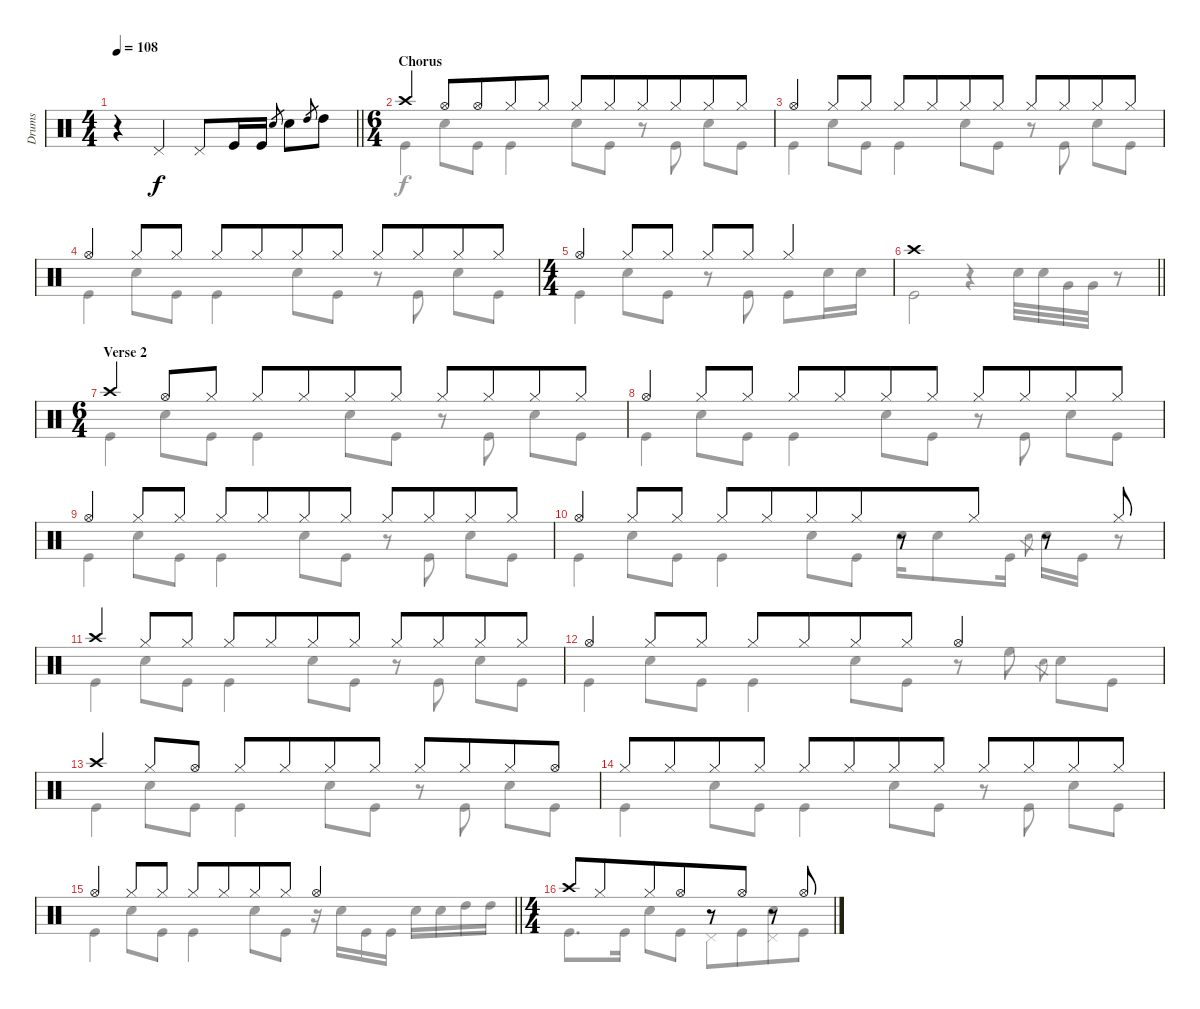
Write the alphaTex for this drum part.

\track ("Drums" "Drums") {instrument percussion}
\staff {score}
\articulation defaults
\voice
\ts (4 4)
\tempo 108
\clef neutral
\barLineRight lightlight
\ks c
r.4{dy f} "Pedal Hi-Hat (hit)".4 "Pedal Hi-Hat (hit)".8 "Kick (hit)".16 "Kick (hit)".16 "Snare (hit) 2".8{gr} "Snare (hit) 2".8 "High Tom (hit)".8{gr} "High Tom (hit)".8 |
\ts (6 4)
\section ("" "Chorus")
"Crash high (hit)".4{beam Up beam split} "Hi-Hat (open)".8{beam Up beam merge} "Hi-Hat (open)".8{beam Up beam merge} "Hi-Hat (closed)".8{beam Up beam merge} "Hi-Hat (closed)".8{beam Up beam split} "Hi-Hat (closed)".8{beam Up beam merge} "Hi-Hat (closed)".8{beam Up beam merge} "Hi-Hat (closed)".8{beam Up beam merge} "Hi-Hat (closed)".8{beam Up beam merge} "Hi-Hat (closed)".8{beam Up beam merge} "Hi-Hat (closed)".8{beam Up} |
"Hi-Hat (open)".4{beam Up beam split} "Hi-Hat (closed)".8{beam Up beam merge} "Hi-Hat (closed)".8{beam Up beam split} "Hi-Hat (closed)".8{beam Up beam merge} "Hi-Hat (closed)".8{beam Up beam merge} "Hi-Hat (closed)".8{beam Up beam merge} "Hi-Hat (closed)".8{beam Up beam split} "Hi-Hat (closed)".8{beam Up beam merge} "Hi-Hat (closed)".8{beam Up beam merge} "Hi-Hat (closed)".8{beam Up beam merge} "Hi-Hat (closed)".8{beam Up} |
"Hi-Hat (open)".4{beam Up beam split} "Hi-Hat (closed)".8{beam Up beam merge} "Hi-Hat (closed)".8{beam Up beam split} "Hi-Hat (closed)".8{beam Up beam merge} "Hi-Hat (closed)".8{beam Up beam merge} "Hi-Hat (closed)".8{beam Up beam merge} "Hi-Hat (closed)".8{beam Up beam split} "Hi-Hat (closed)".8{beam Up beam merge} "Hi-Hat (closed)".8{beam Up beam merge} "Hi-Hat (closed)".8{beam Up beam merge} "Hi-Hat (closed)".8{beam Up} |
\ts (4 4)
"Hi-Hat (open)".4{beam Up beam split} "Hi-Hat (closed)".8{beam Up beam merge} "Hi-Hat (closed)".8{beam Up beam split} "Hi-Hat (closed)".8{beam Up beam merge} "Hi-Hat (closed)".8{beam Up beam merge} "Hi-Hat (closed)".4{beam Up} |
\barLineRight lightlight "Crash high (hit)".1
|
\ts (6 4)
\section ("" "Verse 2")
"Crash high (hit)".4{beam Up} "Hi-Hat (open)".8{beam Up} "Hi-Hat (closed)".8{beam Up beam split} "Hi-Hat (closed)".8{beam Up beam merge} "Hi-Hat (closed)".8{beam Up beam merge} "Hi-Hat (closed)".8{beam Up beam merge} "Hi-Hat (closed)".8{beam Up beam split} "Hi-Hat (closed)".8{beam Up beam merge} "Hi-Hat (closed)".8{beam Up beam merge} "Hi-Hat (closed)".8{beam Up beam merge} "Hi-Hat (closed)".8{beam Up} |
"Hi-Hat (open)".4{beam Up} "Hi-Hat (closed)".8{beam Up beam merge} "Hi-Hat (closed)".8{beam Up beam split} "Hi-Hat (closed)".8{beam Up beam merge} "Hi-Hat (closed)".8{beam Up beam merge} "Hi-Hat (closed)".8{beam Up beam merge} "Hi-Hat (closed)".8{beam Up beam split} "Hi-Hat (closed)".8{beam Up beam merge} "Hi-Hat (closed)".8{beam Up beam merge} "Hi-Hat (closed)".8{beam Up beam merge} "Hi-Hat (closed)".8{beam Up} |
"Hi-Hat (open)".4{beam Up} "Hi-Hat (closed)".8{beam Up beam merge} "Hi-Hat (closed)".8{beam Up beam split} "Hi-Hat (closed)".8{beam Up beam merge} "Hi-Hat (closed)".8{beam Up beam merge} "Hi-Hat (closed)".8{beam Up beam merge} "Hi-Hat (closed)".8{beam Up beam split} "Hi-Hat (closed)".8{beam Up beam merge} "Hi-Hat (closed)".8{beam Up beam merge} "Hi-Hat (closed)".8{beam Up beam merge} "Hi-Hat (closed)".8{beam Up} |
"Hi-Hat (open)".4{beam Up} "Hi-Hat (closed)".8{beam Up beam merge} "Hi-Hat (closed)".8{beam Up beam split} "Hi-Hat (closed)".8{beam Up beam merge} "Hi-Hat (closed)".8{beam Up beam merge} "Hi-Hat (closed)".8{beam Up beam merge} "Hi-Hat (closed)".8{beam Up beam merge} r.8{beam Up beam merge} "Hi-Hat (closed)".8{beam Up beam split} r.8{beam Up beam merge} "Hi-Hat (closed)".8{beam Up} |
"Crash high (hit)".4{beam Up} "Hi-Hat (closed)".8{beam Up} "Hi-Hat (closed)".8{beam Up beam split} "Hi-Hat (closed)".8{beam Up beam merge} "Hi-Hat (closed)".8{beam Up beam merge} "Hi-Hat (closed)".8{beam Up beam merge} "Hi-Hat (closed)".8{beam Up beam split} "Hi-Hat (closed)".8{beam Up beam merge} "Hi-Hat (closed)".8{beam Up beam merge} "Hi-Hat (closed)".8{beam Up beam merge} "Hi-Hat (closed)".8{beam Up} |
"Hi-Hat (open)".4{beam Up} "Hi-Hat (closed)".8{beam Up beam merge} "Hi-Hat (closed)".8{beam Up beam split} "Hi-Hat (closed)".8{beam Up beam merge} "Hi-Hat (closed)".8{beam Up beam merge} "Hi-Hat (closed)".8{beam Up beam merge} "Hi-Hat (closed)".8{beam Up} "Hi-Hat (open)".2{beam Up} |
"Crash high (hit)".4{beam Up} "Hi-Hat (closed)".8{beam Up} "Hi-Hat (open)".8{beam Up beam split} "Hi-Hat (closed)".8{beam Up beam merge} "Hi-Hat (closed)".8{beam Up beam merge} "Hi-Hat (closed)".8{beam Up beam merge} "Hi-Hat (closed)".8{beam Up beam split} "Hi-Hat (closed)".8{beam Up beam merge} "Hi-Hat (closed)".8{beam Up beam merge} "Hi-Hat (closed)".8{beam Up beam merge} "Hi-Hat (open)".8{beam Up} |
"Hi-Hat (closed)".8{beam Up beam merge} "Hi-Hat (closed)".8{beam Up beam merge} "Hi-Hat (closed)".8{beam Up beam merge} "Hi-Hat (closed)".8{beam Up beam split} "Hi-Hat (closed)".8{beam Up beam merge} "Hi-Hat (closed)".8{beam Up beam merge} "Hi-Hat (closed)".8{beam Up beam merge} "Hi-Hat (closed)".8{beam Up beam split} "Hi-Hat (closed)".8{beam Up beam merge} "Hi-Hat (closed)".8{beam Up beam merge} "Hi-Hat (closed)".8{beam Up beam merge} "Hi-Hat (closed)".8{beam Up} |
\barLineRight lightlight "Hi-Hat (open)".4{beam Up} "Hi-Hat (closed)".8{beam Up beam merge} "Hi-Hat (closed)".8{beam Up beam split} "Hi-Hat (closed)".8{beam Up beam merge} "Hi-Hat (closed)".8{beam Up beam merge} "Hi-Hat (closed)".8{beam Up beam merge} "Hi-Hat (closed)".8{beam Up} "Hi-Hat (open)".2{beam Up}
|
\ts (4 4)
"Crash high (hit)".8{beam Up} "Hi-Hat (closed)".8{beam Up beam merge} "Hi-Hat (closed)".8{beam Up beam merge} "Hi-Hat (open)".8{beam Up beam merge} r.8{beam Up beam merge} "Hi-Hat (open)".8{beam Up beam split} r.8{beam Up beam merge} "Hi-Hat (open)".8{beam Up}
\voice
\clef neutral
\ottava regular
\simile none
\barLineRight lightlight
\ks c
|
"Kick (hit)".4 "Snare (hit) 2".8 "Kick (hit)".8 "Kick (hit)".4 "Snare (hit) 2".8 "Kick (hit)".8 r.8 "Kick (hit)".8 "Snare (hit) 2".8 "Kick (hit)".8 |
"Kick (hit)".4 "Snare (hit) 2".8 "Kick (hit)".8 "Kick (hit)".4 "Snare (hit) 2".8 "Kick (hit)".8 r.8 "Kick (hit)".8 "Snare (hit) 2".8 "Kick (hit)".8 |
"Kick (hit)".4 "Snare (hit) 2".8 "Kick (hit)".8 "Kick (hit)".4 "Snare (hit) 2".8 "Kick (hit)".8 r.8 "Kick (hit)".8 "Snare (hit) 2".8 "Kick (hit)".8 |
"Kick (hit)".4 "Snare (hit) 2".8 "Kick (hit)".8 r.8 "Kick (hit)".8 "Kick (hit)".8 "Snare (hit) 2".16 "Snare (hit) 2".16 |
\barLineRight lightlight "Kick (hit)".2
r.4 "Snare (hit) 2".32 "Snare (hit) 2".32 "Very Low Tom (hit)".32 "Very Low Tom (hit)".32 r.8 |
"Kick (hit)".4 "Snare (hit) 2".8 "Kick (hit)".8 "Kick (hit)".4 "Snare (hit) 2".8 "Kick (hit)".8 r.8 "Kick (hit)".8 "Snare (hit) 2".8 "Kick (hit)".8 |
"Kick (hit)".4 "Snare (hit) 2".8 "Kick (hit)".8 "Kick (hit)".4 "Snare (hit) 2".8 "Kick (hit)".8 r.8 "Kick (hit)".8 "Snare (hit) 2".8 "Kick (hit)".8 |
"Kick (hit)".4 "Snare (hit) 2".8 "Kick (hit)".8 "Kick (hit)".4 "Snare (hit) 2".8 "Kick (hit)".8 r.8 "Kick (hit)".8 "Snare (hit) 2".8 "Kick (hit)".8 |
"Kick (hit)".4 "Snare (hit) 2".8 "Kick (hit)".8 "Kick (hit)".4 "Snare (hit) 2".8{beam merge} "Kick (hit)".8{beam split} "Snare (hit) 2".16 "Snare (hit) 2".8 "Kick (hit)".16 "Snare (hit) 2".8{gr beam split} "Snare (hit) 2".16 "Kick (hit)".16 r.8 |
"Kick (hit)".4 "Snare (hit) 2".8 "Kick (hit)".8 "Kick (hit)".4 "Snare (hit) 2".8 "Kick (hit)".8 r.8 "Kick (hit)".8 "Snare (hit) 2".8 "Kick (hit)".8 |
"Kick (hit)".4 "Snare (hit) 2".8 "Kick (hit)".8 "Kick (hit)".4 "Snare (hit) 2".8 "Kick (hit)".8 r.8 "High Floor Tom (hit)".8 "Snare (hit) 2".8{gr} "Snare (hit) 2".8 "Kick (hit)".8 |
"Kick (hit)".4 "Snare (hit) 2".8 "Kick (hit)".8 "Kick (hit)".4 "Snare (hit) 2".8 "Kick (hit)".8 r.8 "Kick (hit)".8 "Snare (hit) 2".8 "Kick (hit)".8 |
"Kick (hit)".4 "Snare (hit) 2".8 "Kick (hit)".8 "Kick (hit)".4 "Snare (hit) 2".8 "Kick (hit)".8 r.8 "Kick (hit)".8 "Snare (hit) 2".8 "Kick (hit)".8 |
\barLineRight lightlight "Kick (hit)".4 "Snare (hit) 2".8 "Kick (hit)".8 "Kick (hit)".4 "Snare (hit) 2".8 "Kick (hit)".8
r.16 "Snare (hit) 2".16 "Kick (hit)".16 "Kick (hit)".16{beam split} "Snare (hit) 2".16 "Snare (hit) 2".16 "High Tom (hit)".16 "High Tom (hit)".16 |
"Kick (hit)".8{d} "Kick (hit)".16 "Snare (hit) 2".8 "Kick (hit)".8 "Pedal Hi-Hat (hit)".8 "Kick (hit)".8{beam merge} ("Snare (hit) 2" "Pedal Hi-Hat (hit)").8 "Kick (hit)".8
